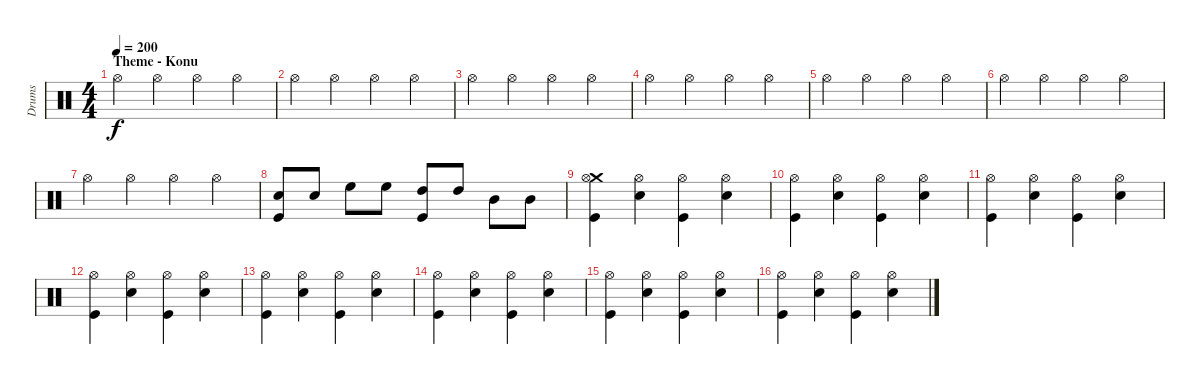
\track ("Drums" "Drums") {instrument percussion}
\staff {score}
\articulation defaults
\ts (4 4)
\section ("" "Theme - Konu")
\tempo 200
\clef neutral
\ks c "Hi-Hat (open)".4{dy f} "Hi-Hat (open)".4 "Hi-Hat (open)".4 "Hi-Hat (open)".4
|
"Hi-Hat (open)".4 "Hi-Hat (open)".4 "Hi-Hat (open)".4 "Hi-Hat (open)".4 |
"Hi-Hat (open)".4 "Hi-Hat (open)".4 "Hi-Hat (open)".4 "Hi-Hat (open)".4 |
"Hi-Hat (open)".4 "Hi-Hat (open)".4 "Hi-Hat (open)".4 "Hi-Hat (open)".4 |
"Hi-Hat (open)".4 "Hi-Hat (open)".4 "Hi-Hat (open)".4 "Hi-Hat (open)".4 |
"Hi-Hat (open)".4 "Hi-Hat (open)".4 "Hi-Hat (open)".4 "Hi-Hat (open)".4 |
"Hi-Hat (open)".4 "Hi-Hat (open)".4 "Hi-Hat (open)".4 "Hi-Hat (open)".4 |
("Snare (hit) 2" "Kick (hit)").8 "Snare (hit) 2".8 "High Floor Tom (hit)".8 "High Floor Tom (hit)".8 ("High Tom (hit)" "Kick (hit)").8 "High Tom (hit)".8 "Mid Tom (hit)".8 "Mid Tom (hit)".8 |
("Crash medium (hit)" "Hi-Hat (open)" "Kick (hit)").4 ("Hi-Hat (open)" "Snare (hit) 2").4 ("Hi-Hat (open)" "Kick (hit)").4 ("Hi-Hat (open)" "Snare (hit) 2").4 |
("Hi-Hat (open)" "Kick (hit)").4 ("Hi-Hat (open)" "Snare (hit) 2").4 ("Hi-Hat (open)" "Kick (hit)").4 ("Hi-Hat (open)" "Snare (hit) 2").4 |
("Hi-Hat (open)" "Kick (hit)").4 ("Hi-Hat (open)" "Snare (hit) 2").4 ("Hi-Hat (open)" "Kick (hit)").4 ("Hi-Hat (open)" "Snare (hit) 2").4 |
("Hi-Hat (open)" "Kick (hit)").4 ("Hi-Hat (open)" "Snare (hit) 2").4 ("Hi-Hat (open)" "Kick (hit)").4 ("Hi-Hat (open)" "Snare (hit) 2").4 |
("Hi-Hat (open)" "Kick (hit)").4 ("Hi-Hat (open)" "Snare (hit) 2").4 ("Hi-Hat (open)" "Kick (hit)").4 ("Hi-Hat (open)" "Snare (hit) 2").4 |
("Hi-Hat (open)" "Kick (hit)").4 ("Hi-Hat (open)" "Snare (hit) 2").4 ("Hi-Hat (open)" "Kick (hit)").4 ("Hi-Hat (open)" "Snare (hit) 2").4 |
("Hi-Hat (open)" "Kick (hit)").4 ("Hi-Hat (open)" "Snare (hit) 2").4 ("Hi-Hat (open)" "Kick (hit)").4 ("Hi-Hat (open)" "Snare (hit) 2").4 |
("Hi-Hat (open)" "Kick (hit)").4 ("Hi-Hat (open)" "Snare (hit) 2").4 ("Hi-Hat (open)" "Kick (hit)").4 ("Hi-Hat (open)" "Snare (hit) 2").4
